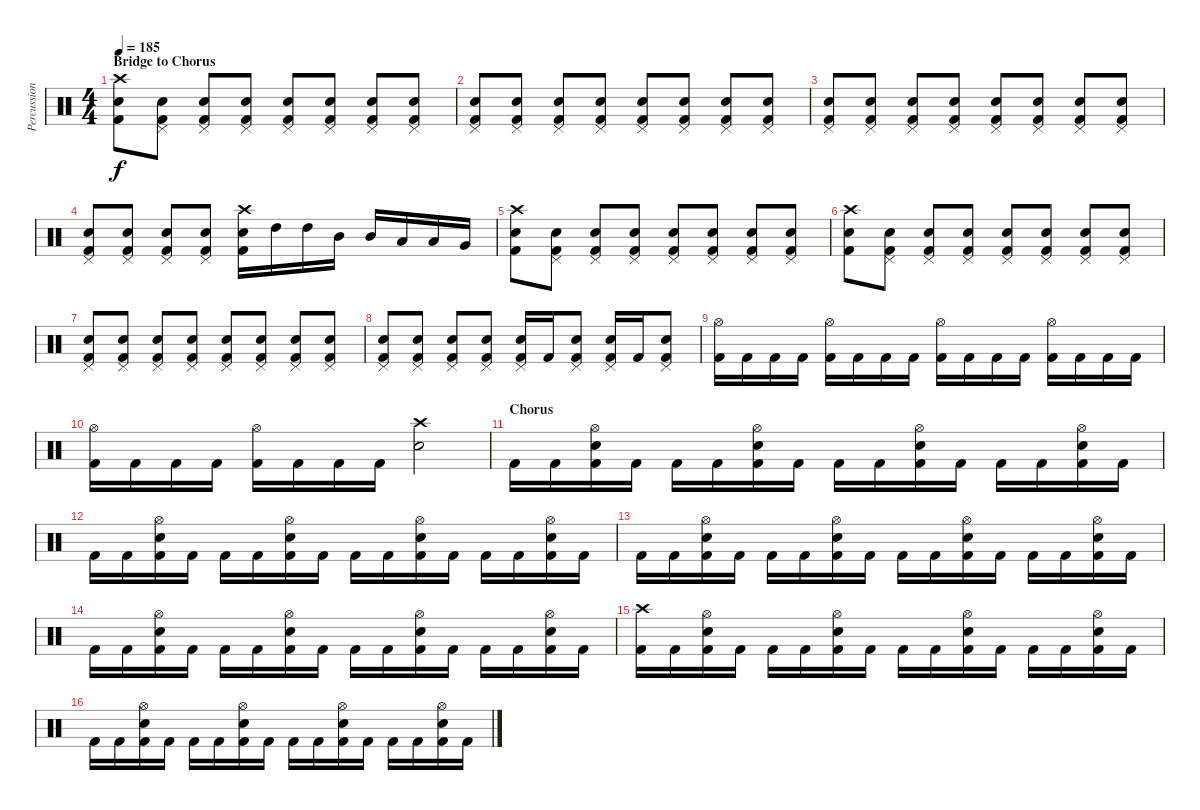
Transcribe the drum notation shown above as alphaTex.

\track ("Percussions" "Percussion") {instrument percussion}
\staff {score}
\articulation defaults
\ts (4 4)
\section ("" "Bridge to Chorus")
\tempo 185
\clef neutral
\ks c
("Crash high (hit)" "Snare (hit) 2" "Kick (hit) 2").8{dy f} ("Pedal Hi-Hat (hit)" "Snare (hit) 2" "Kick (hit) 2").8 ("Pedal Hi-Hat (hit)" "Snare (hit) 2" "Kick (hit) 2").8 ("Pedal Hi-Hat (hit)" "Snare (hit) 2" "Kick (hit) 2").8 ("Pedal Hi-Hat (hit)" "Snare (hit) 2" "Kick (hit) 2").8 ("Pedal Hi-Hat (hit)" "Snare (hit) 2" "Kick (hit) 2").8 ("Pedal Hi-Hat (hit)" "Snare (hit) 2" "Kick (hit) 2").8 ("Pedal Hi-Hat (hit)" "Snare (hit) 2" "Kick (hit) 2").8 |
("Pedal Hi-Hat (hit)" "Snare (hit) 2" "Kick (hit) 2").8 ("Pedal Hi-Hat (hit)" "Snare (hit) 2" "Kick (hit) 2").8 ("Pedal Hi-Hat (hit)" "Snare (hit) 2" "Kick (hit) 2").8 ("Pedal Hi-Hat (hit)" "Snare (hit) 2" "Kick (hit) 2").8 ("Pedal Hi-Hat (hit)" "Snare (hit) 2" "Kick (hit) 2").8 ("Pedal Hi-Hat (hit)" "Snare (hit) 2" "Kick (hit) 2").8 ("Pedal Hi-Hat (hit)" "Snare (hit) 2" "Kick (hit) 2").8 ("Pedal Hi-Hat (hit)" "Snare (hit) 2" "Kick (hit) 2").8 |
("Pedal Hi-Hat (hit)" "Snare (hit) 2" "Kick (hit) 2").8 ("Pedal Hi-Hat (hit)" "Snare (hit) 2" "Kick (hit) 2").8 ("Pedal Hi-Hat (hit)" "Snare (hit) 2" "Kick (hit) 2").8 ("Pedal Hi-Hat (hit)" "Snare (hit) 2" "Kick (hit) 2").8 ("Pedal Hi-Hat (hit)" "Snare (hit) 2" "Kick (hit) 2").8 ("Pedal Hi-Hat (hit)" "Snare (hit) 2" "Kick (hit) 2").8 ("Pedal Hi-Hat (hit)" "Snare (hit) 2" "Kick (hit) 2").8 ("Pedal Hi-Hat (hit)" "Snare (hit) 2" "Kick (hit) 2").8 |
("Pedal Hi-Hat (hit)" "Snare (hit) 2" "Kick (hit) 2").8 ("Pedal Hi-Hat (hit)" "Snare (hit) 2" "Kick (hit) 2").8 ("Pedal Hi-Hat (hit)" "Snare (hit) 2" "Kick (hit) 2").8 ("Pedal Hi-Hat (hit)" "Snare (hit) 2" "Kick (hit) 2").8 ("Crash high (hit)" "Snare (hit) 2" "Kick (hit) 2").16 "High Tom (hit)".16 "High Tom (hit)".16 "Mid Tom (hit)".16 "Mid Tom (hit)".16 "Low Tom (hit)".16 "Low Tom (hit)".16 "Very Low Tom (hit)".16 |
("Crash high (hit)" "Snare (hit) 2" "Kick (hit) 2").8 ("Pedal Hi-Hat (hit)" "Snare (hit) 2" "Kick (hit) 2").8 ("Pedal Hi-Hat (hit)" "Snare (hit) 2" "Kick (hit) 2").8 ("Pedal Hi-Hat (hit)" "Snare (hit) 2" "Kick (hit) 2").8 ("Pedal Hi-Hat (hit)" "Snare (hit) 2" "Kick (hit) 2").8 ("Pedal Hi-Hat (hit)" "Snare (hit) 2" "Kick (hit) 2").8 ("Pedal Hi-Hat (hit)" "Snare (hit) 2" "Kick (hit) 2").8 ("Pedal Hi-Hat (hit)" "Snare (hit) 2" "Kick (hit) 2").8 |
("Crash high (hit)" "Snare (hit) 2" "Kick (hit) 2").8 ("Pedal Hi-Hat (hit)" "Snare (hit) 2" "Kick (hit) 2").8 ("Pedal Hi-Hat (hit)" "Snare (hit) 2" "Kick (hit) 2").8 ("Pedal Hi-Hat (hit)" "Snare (hit) 2" "Kick (hit) 2").8 ("Pedal Hi-Hat (hit)" "Snare (hit) 2" "Kick (hit) 2").8 ("Pedal Hi-Hat (hit)" "Snare (hit) 2" "Kick (hit) 2").8 ("Pedal Hi-Hat (hit)" "Snare (hit) 2" "Kick (hit) 2").8 ("Pedal Hi-Hat (hit)" "Snare (hit) 2" "Kick (hit) 2").8 |
("Pedal Hi-Hat (hit)" "Snare (hit) 2" "Kick (hit) 2").8 ("Pedal Hi-Hat (hit)" "Snare (hit) 2" "Kick (hit) 2").8 ("Pedal Hi-Hat (hit)" "Snare (hit) 2" "Kick (hit) 2").8 ("Pedal Hi-Hat (hit)" "Snare (hit) 2" "Kick (hit) 2").8 ("Pedal Hi-Hat (hit)" "Snare (hit) 2" "Kick (hit) 2").8 ("Pedal Hi-Hat (hit)" "Snare (hit) 2" "Kick (hit) 2").8 ("Pedal Hi-Hat (hit)" "Snare (hit) 2" "Kick (hit) 2").8 ("Pedal Hi-Hat (hit)" "Snare (hit) 2" "Kick (hit) 2").8 |
("Pedal Hi-Hat (hit)" "Snare (hit) 2" "Kick (hit) 2").8 ("Pedal Hi-Hat (hit)" "Snare (hit) 2" "Kick (hit) 2").8 ("Pedal Hi-Hat (hit)" "Snare (hit) 2" "Kick (hit) 2").8 ("Pedal Hi-Hat (hit)" "Snare (hit) 2" "Kick (hit) 2").8 ("Pedal Hi-Hat (hit)" "Snare (hit) 2" "Kick (hit) 2").16 "Kick (hit) 2".16 ("Pedal Hi-Hat (hit)" "Snare (hit) 2" "Kick (hit) 2").8 ("Pedal Hi-Hat (hit)" "Snare (hit) 2" "Kick (hit) 2").16 "Kick (hit) 2".16 ("Pedal Hi-Hat (hit)" "Snare (hit) 2" "Kick (hit) 2").8 |
("Hi-Hat (open)" "Kick (hit) 2").16 "Kick (hit) 2".16 "Kick (hit) 2".16 "Kick (hit) 2".16 ("Hi-Hat (open)" "Kick (hit) 2").16 "Kick (hit) 2".16 "Kick (hit) 2".16 "Kick (hit) 2".16 ("Hi-Hat (open)" "Kick (hit) 2").16 "Kick (hit) 2".16 "Kick (hit) 2".16 "Kick (hit) 2".16 ("Hi-Hat (open)" "Kick (hit) 2").16 "Kick (hit) 2".16 "Kick (hit) 2".16 "Kick (hit) 2".16 |
("Hi-Hat (open)" "Kick (hit) 2").16 "Kick (hit) 2".16 "Kick (hit) 2".16 "Kick (hit) 2".16 ("Hi-Hat (open)" "Kick (hit) 2").16 "Kick (hit) 2".16 "Kick (hit) 2".16 "Kick (hit) 2".16 ("Crash high (hit)" "Snare (hit) 2").2 |
\section ("" "Chorus")
"Kick (hit) 2".16 "Kick (hit) 2".16 ("Hi-Hat (open)" "Snare (hit) 2" "Kick (hit) 2").16 "Kick (hit) 2".16 "Kick (hit) 2".16 "Kick (hit) 2".16 ("Hi-Hat (open)" "Snare (hit) 2" "Kick (hit) 2").16 "Kick (hit) 2".16 "Kick (hit) 2".16 "Kick (hit) 2".16 ("Hi-Hat (open)" "Snare (hit) 2" "Kick (hit) 2").16 "Kick (hit) 2".16 "Kick (hit) 2".16 "Kick (hit) 2".16 ("Hi-Hat (open)" "Snare (hit) 2" "Kick (hit) 2").16 "Kick (hit) 2".16 |
"Kick (hit) 2".16 "Kick (hit) 2".16 ("Hi-Hat (open)" "Snare (hit) 2" "Kick (hit) 2").16 "Kick (hit) 2".16 "Kick (hit) 2".16 "Kick (hit) 2".16 ("Hi-Hat (open)" "Snare (hit) 2" "Kick (hit) 2").16 "Kick (hit) 2".16 "Kick (hit) 2".16 "Kick (hit) 2".16 ("Hi-Hat (open)" "Snare (hit) 2" "Kick (hit) 2").16 "Kick (hit) 2".16 "Kick (hit) 2".16 "Kick (hit) 2".16 ("Hi-Hat (open)" "Snare (hit) 2" "Kick (hit) 2").16 "Kick (hit) 2".16 |
"Kick (hit) 2".16 "Kick (hit) 2".16 ("Hi-Hat (open)" "Snare (hit) 2" "Kick (hit) 2").16 "Kick (hit) 2".16 "Kick (hit) 2".16 "Kick (hit) 2".16 ("Hi-Hat (open)" "Snare (hit) 2" "Kick (hit) 2").16 "Kick (hit) 2".16 "Kick (hit) 2".16 "Kick (hit) 2".16 ("Hi-Hat (open)" "Snare (hit) 2" "Kick (hit) 2").16 "Kick (hit) 2".16 "Kick (hit) 2".16 "Kick (hit) 2".16 ("Hi-Hat (open)" "Snare (hit) 2" "Kick (hit) 2").16 "Kick (hit) 2".16 |
"Kick (hit) 2".16 "Kick (hit) 2".16 ("Hi-Hat (open)" "Snare (hit) 2" "Kick (hit) 2").16 "Kick (hit) 2".16 "Kick (hit) 2".16 "Kick (hit) 2".16 ("Hi-Hat (open)" "Snare (hit) 2" "Kick (hit) 2").16 "Kick (hit) 2".16 "Kick (hit) 2".16 "Kick (hit) 2".16 ("Hi-Hat (open)" "Snare (hit) 2" "Kick (hit) 2").16 "Kick (hit) 2".16 "Kick (hit) 2".16 "Kick (hit) 2".16 ("Hi-Hat (open)" "Snare (hit) 2" "Kick (hit) 2").16 "Kick (hit) 2".16 |
("Crash high (hit)" "Kick (hit) 2").16 "Kick (hit) 2".16 ("Hi-Hat (open)" "Snare (hit) 2" "Kick (hit) 2").16 "Kick (hit) 2".16 "Kick (hit) 2".16 "Kick (hit) 2".16 ("Hi-Hat (open)" "Snare (hit) 2" "Kick (hit) 2").16 "Kick (hit) 2".16 "Kick (hit) 2".16 "Kick (hit) 2".16 ("Hi-Hat (open)" "Snare (hit) 2" "Kick (hit) 2").16 "Kick (hit) 2".16 "Kick (hit) 2".16 "Kick (hit) 2".16 ("Hi-Hat (open)" "Snare (hit) 2" "Kick (hit) 2").16 "Kick (hit) 2".16 |
"Kick (hit) 2".16 "Kick (hit) 2".16 ("Hi-Hat (open)" "Snare (hit) 2" "Kick (hit) 2").16 "Kick (hit) 2".16 "Kick (hit) 2".16 "Kick (hit) 2".16 ("Hi-Hat (open)" "Snare (hit) 2" "Kick (hit) 2").16 "Kick (hit) 2".16 "Kick (hit) 2".16 "Kick (hit) 2".16 ("Hi-Hat (open)" "Snare (hit) 2" "Kick (hit) 2").16 "Kick (hit) 2".16 "Kick (hit) 2".16 "Kick (hit) 2".16 ("Hi-Hat (open)" "Snare (hit) 2" "Kick (hit) 2").16 "Kick (hit) 2".16
